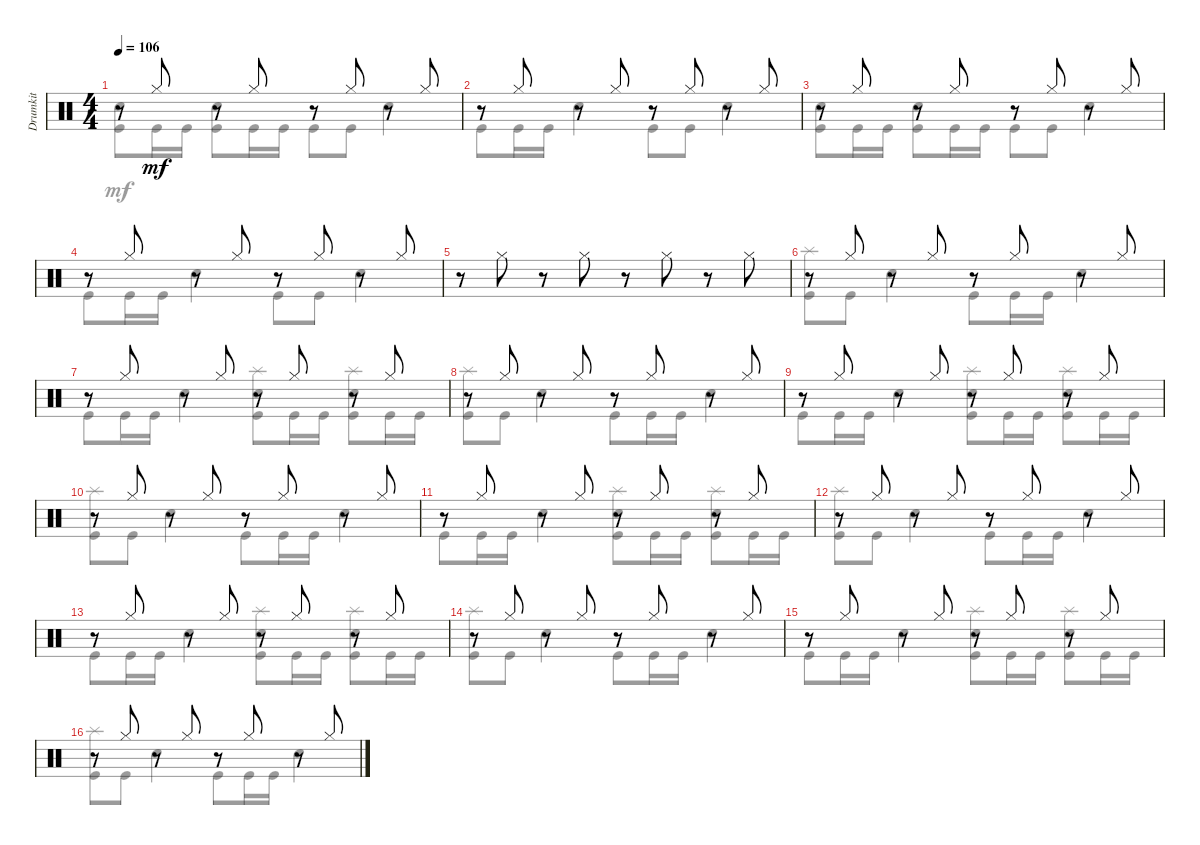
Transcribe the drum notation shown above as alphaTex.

\track ("Drumkit" "Drumkit") {instrument percussion}
\staff {score}
\articulation defaults
\voice
\ts (4 4)
\tempo 106
\clef neutral
\ks c
r.8{dy mf} "Hi-Hat (closed)".8 r.8 "Hi-Hat (closed)".8 r.8 "Hi-Hat (closed)".8 r.8 "Hi-Hat (closed)".8 |
r.8 "Hi-Hat (closed)".8 r.8 "Hi-Hat (closed)".8 r.8 "Hi-Hat (closed)".8 r.8 "Hi-Hat (closed)".8 |
r.8 "Hi-Hat (closed)".8 r.8 "Hi-Hat (closed)".8 r.8 "Hi-Hat (closed)".8 r.8 "Hi-Hat (closed)".8 |
r.8 "Hi-Hat (closed)".8 r.8 "Hi-Hat (closed)".8 r.8 "Hi-Hat (closed)".8 r.8 "Hi-Hat (closed)".8 |
r.8 "Hi-Hat (closed)".8 r.8 "Hi-Hat (closed)".8 r.8 "Hi-Hat (closed)".8 r.8 "Hi-Hat (closed)".8 |
r.8 "Hi-Hat (closed)".8 r.8 "Hi-Hat (closed)".8 r.8 "Hi-Hat (closed)".8 r.8 "Hi-Hat (closed)".8 |
r.8 "Hi-Hat (closed)".8 r.8 "Hi-Hat (closed)".8 r.8 "Hi-Hat (closed)".8 r.8 "Hi-Hat (closed)".8 |
r.8 "Hi-Hat (closed)".8 r.8 "Hi-Hat (closed)".8 r.8 "Hi-Hat (closed)".8 r.8 "Hi-Hat (closed)".8 |
r.8 "Hi-Hat (closed)".8 r.8 "Hi-Hat (closed)".8 r.8 "Hi-Hat (closed)".8 r.8 "Hi-Hat (closed)".8 |
r.8 "Hi-Hat (closed)".8 r.8 "Hi-Hat (closed)".8 r.8 "Hi-Hat (closed)".8 r.8 "Hi-Hat (closed)".8 |
r.8 "Hi-Hat (closed)".8 r.8 "Hi-Hat (closed)".8 r.8 "Hi-Hat (closed)".8 r.8 "Hi-Hat (closed)".8 |
r.8 "Hi-Hat (closed)".8 r.8 "Hi-Hat (closed)".8 r.8 "Hi-Hat (closed)".8 r.8 "Hi-Hat (closed)".8 |
r.8 "Hi-Hat (closed)".8 r.8 "Hi-Hat (closed)".8 r.8 "Hi-Hat (closed)".8 r.8 "Hi-Hat (closed)".8 |
r.8 "Hi-Hat (closed)".8 r.8 "Hi-Hat (closed)".8 r.8 "Hi-Hat (closed)".8 r.8 "Hi-Hat (closed)".8 |
r.8 "Hi-Hat (closed)".8 r.8 "Hi-Hat (closed)".8 r.8 "Hi-Hat (closed)".8 r.8 "Hi-Hat (closed)".8 |
r.8 "Hi-Hat (closed)".8 r.8 "Hi-Hat (closed)".8 r.8 "Hi-Hat (closed)".8 r.8 "Hi-Hat (closed)".8
\voice
\clef neutral
\ottava regular
\simile none
\ks c
("Kick (hit)" "Snare (hit) 2").8{dy mf} "Kick (hit)".16 "Kick (hit)".16 ("Kick (hit)" "Snare (hit) 2").8 "Kick (hit)".16 "Kick (hit)".16 "Kick (hit)".8 "Kick (hit)".8 "Snare (hit) 2".4 |
"Kick (hit)".8 "Kick (hit)".16 "Kick (hit)".16 "Snare (hit) 2".4 "Kick (hit)".8 "Kick (hit)".8 "Snare (hit) 2".4 |
("Kick (hit)" "Snare (hit) 2").8 "Kick (hit)".16 "Kick (hit)".16 ("Kick (hit)" "Snare (hit) 2").8 "Kick (hit)".16 "Kick (hit)".16 "Kick (hit)".8 "Kick (hit)".8 "Snare (hit) 2".4 |
"Kick (hit)".8 "Kick (hit)".16 "Kick (hit)".16 "Snare (hit) 2".4 "Kick (hit)".8 "Kick (hit)".8 "Snare (hit) 2".4 |
|
("Kick (hit)" "Splash (hit)").8 "Kick (hit)".8 "Snare (hit) 2".4 "Kick (hit)".8 "Kick (hit)".16 "Kick (hit)".16 "Snare (hit) 2".4 |
"Kick (hit)".8 "Kick (hit)".16 "Kick (hit)".16 "Snare (hit) 2".4 ("Kick (hit)" "Snare (hit) 2" "Splash (hit)").8 "Kick (hit)".16 "Kick (hit)".16 ("Kick (hit)" "Snare (hit) 2" "Splash (hit)").8 "Kick (hit)".16 "Kick (hit)".16 |
("Kick (hit)" "Splash (hit)").8 "Kick (hit)".8 "Snare (hit) 2".4 "Kick (hit)".8 "Kick (hit)".16 "Kick (hit)".16 "Snare (hit) 2".4 |
"Kick (hit)".8 "Kick (hit)".16 "Kick (hit)".16 "Snare (hit) 2".4 ("Kick (hit)" "Snare (hit) 2" "Splash (hit)").8 "Kick (hit)".16 "Kick (hit)".16 ("Kick (hit)" "Snare (hit) 2" "Splash (hit)").8 "Kick (hit)".16 "Kick (hit)".16 |
("Kick (hit)" "Splash (hit)").8 "Kick (hit)".8 "Snare (hit) 2".4 "Kick (hit)".8 "Kick (hit)".16 "Kick (hit)".16 "Snare (hit) 2".4 |
"Kick (hit)".8 "Kick (hit)".16 "Kick (hit)".16 "Snare (hit) 2".4 ("Kick (hit)" "Snare (hit) 2" "Splash (hit)").8 "Kick (hit)".16 "Kick (hit)".16 ("Kick (hit)" "Snare (hit) 2" "Splash (hit)").8 "Kick (hit)".16 "Kick (hit)".16 |
("Kick (hit)" "Splash (hit)").8 "Kick (hit)".8 "Snare (hit) 2".4 "Kick (hit)".8 "Kick (hit)".16 "Kick (hit)".16 "Snare (hit) 2".4 |
"Kick (hit)".8 "Kick (hit)".16 "Kick (hit)".16 "Snare (hit) 2".4 ("Kick (hit)" "Snare (hit) 2" "Splash (hit)").8 "Kick (hit)".16 "Kick (hit)".16 ("Kick (hit)" "Snare (hit) 2" "Splash (hit)").8 "Kick (hit)".16 "Kick (hit)".16 |
("Kick (hit)" "Splash (hit)").8 "Kick (hit)".8 "Snare (hit) 2".4 "Kick (hit)".8 "Kick (hit)".16 "Kick (hit)".16 "Snare (hit) 2".4 |
"Kick (hit)".8 "Kick (hit)".16 "Kick (hit)".16 "Snare (hit) 2".4 ("Kick (hit)" "Snare (hit) 2" "Splash (hit)").8 "Kick (hit)".16 "Kick (hit)".16 ("Kick (hit)" "Snare (hit) 2" "Splash (hit)").8 "Kick (hit)".16 "Kick (hit)".16 |
("Kick (hit)" "Splash (hit)").8 "Kick (hit)".8 "Snare (hit) 2".4 "Kick (hit)".8 "Kick (hit)".16 "Kick (hit)".16 "Snare (hit) 2".4
